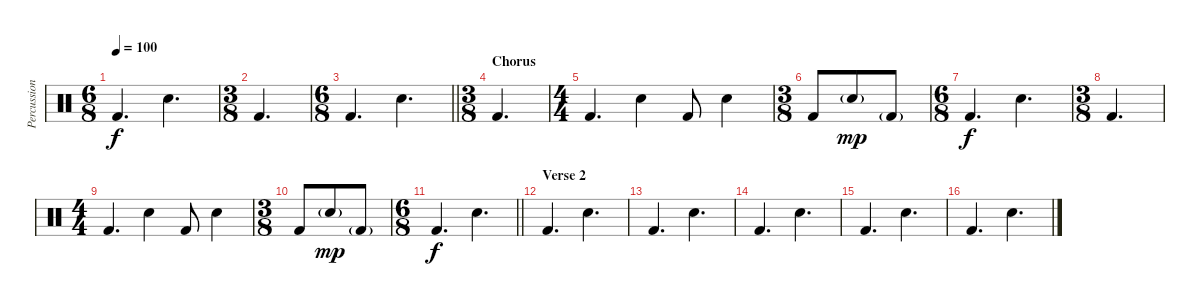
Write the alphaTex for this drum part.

\track ("Percussion" "Percussion") {instrument percussion}
\staff {score}
\articulation defaults
\ts (6 8)
\tempo 100
\clef neutral
\ks c "Kick (hit) 2".4{d dy f} "Snare (hit) 2".4{d}
|
\ts (3 8)
"Kick (hit) 2".4{d} |
\ts (6 8)
\barLineRight lightlight "Kick (hit) 2".4{d} "Snare (hit) 2".4{d}
|
\ts (3 8)
\section ("" "Chorus")
"Kick (hit) 2".4{d} |
\ts (4 4)
"Kick (hit) 2".4{d} "Snare (hit) 2".4 "Kick (hit) 2".8 "Snare (hit) 2".4 |
\ts (3 8)
"Kick (hit) 2".8 "Snare (hit) 2"{g}.8{dy mp} "Kick (hit) 2"{g}.8 |
\ts (6 8)
"Kick (hit) 2".4{d dy f} "Snare (hit) 2".4{d} |
\ts (3 8)
"Kick (hit) 2".4{d} |
\ts (4 4)
"Kick (hit) 2".4{d} "Snare (hit) 2".4 "Kick (hit) 2".8 "Snare (hit) 2".4 |
\ts (3 8)
"Kick (hit) 2".8 "Snare (hit) 2"{g}.8{dy mp} "Kick (hit) 2"{g}.8 |
\ts (6 8)
\barLineRight lightlight "Kick (hit) 2".4{d dy f} "Snare (hit) 2".4{d}
|
\section ("" "Verse 2")
"Kick (hit) 2".4{d} "Snare (hit) 2".4{d} |
"Kick (hit) 2".4{d} "Snare (hit) 2".4{d} |
"Kick (hit) 2".4{d} "Snare (hit) 2".4{d} |
"Kick (hit) 2".4{d} "Snare (hit) 2".4{d} |
"Kick (hit) 2".4{d} "Snare (hit) 2".4{d}
